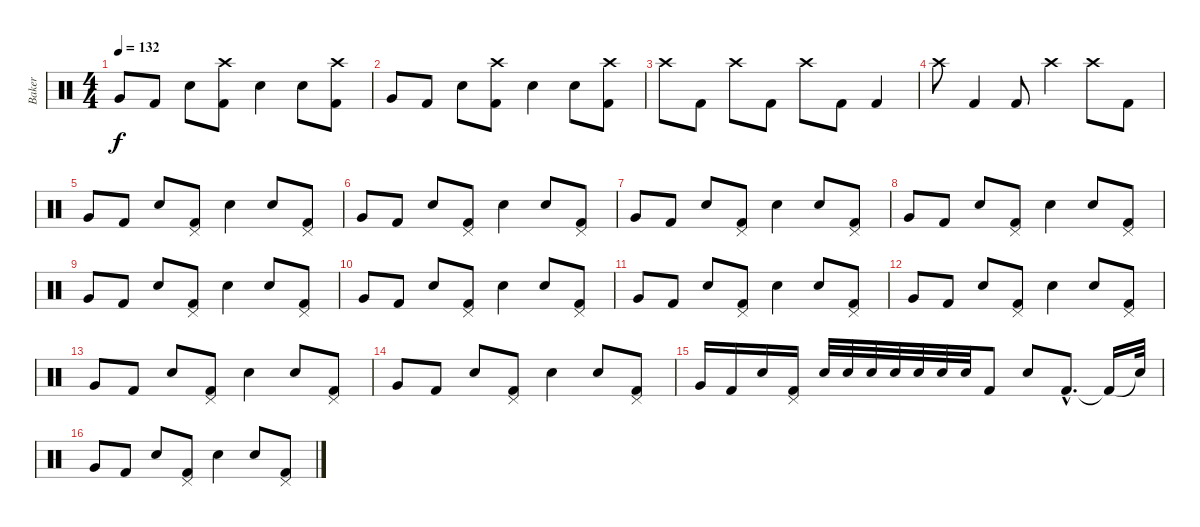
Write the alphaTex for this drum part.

\track ("Baker" "Baker") {instrument percussion}
\staff {score}
\articulation defaults
\ts (4 4)
\tempo 132
\clef neutral
\ks c "Very Low Tom (hit)".8{dy f} "Kick (hit) 2".8 "Snare (hit) 2".8
("Crash high (hit)" "Kick (hit) 2").8 "Snare (hit) 2".4 "Snare (hit) 2".8 ("Crash high (hit)" "Kick (hit) 2").8 |
"Very Low Tom (hit)".8 "Kick (hit) 2".8 "Snare (hit) 2".8 ("Crash high (hit)" "Kick (hit) 2").8 "Snare (hit) 2".4 "Snare (hit) 2".8 ("Crash high (hit)" "Kick (hit) 2").8 |
"Crash high (hit)".8 "Kick (hit) 2".8 "Crash high (hit)".8 "Kick (hit) 2".8 "Crash high (hit)".8 "Kick (hit) 2".8 "Kick (hit) 2".4 |
"Crash high (hit)".8 "Kick (hit) 2".4 "Kick (hit) 2".8 "Crash high (hit)".4 "Crash high (hit)".8 "Kick (hit) 2".8 |
"Very Low Tom (hit)".8 "Kick (hit) 2".8 "Snare (hit) 2".8 ("Pedal Hi-Hat (hit)" "Kick (hit) 2").8 "Snare (hit) 2".4 "Snare (hit) 2".8 ("Pedal Hi-Hat (hit)" "Kick (hit) 2").8 |
"Very Low Tom (hit)".8 "Kick (hit) 2".8 "Snare (hit) 2".8 ("Pedal Hi-Hat (hit)" "Kick (hit) 2").8 "Snare (hit) 2".4 "Snare (hit) 2".8 ("Pedal Hi-Hat (hit)" "Kick (hit) 2").8 |
"Very Low Tom (hit)".8 "Kick (hit) 2".8 "Snare (hit) 2".8 ("Pedal Hi-Hat (hit)" "Kick (hit) 2").8 "Snare (hit) 2".4 "Snare (hit) 2".8 ("Pedal Hi-Hat (hit)" "Kick (hit) 2").8 |
"Very Low Tom (hit)".8 "Kick (hit) 2".8 "Snare (hit) 2".8 ("Pedal Hi-Hat (hit)" "Kick (hit) 2").8 "Snare (hit) 2".4 "Snare (hit) 2".8 ("Pedal Hi-Hat (hit)" "Kick (hit) 2").8 |
"Very Low Tom (hit)".8 "Kick (hit) 2".8 "Snare (hit) 2".8 ("Pedal Hi-Hat (hit)" "Kick (hit) 2").8 "Snare (hit) 2".4 "Snare (hit) 2".8 ("Pedal Hi-Hat (hit)" "Kick (hit) 2").8 |
"Very Low Tom (hit)".8 "Kick (hit) 2".8 "Snare (hit) 2".8 ("Pedal Hi-Hat (hit)" "Kick (hit) 2").8 "Snare (hit) 2".4 "Snare (hit) 2".8 ("Pedal Hi-Hat (hit)" "Kick (hit) 2").8 |
"Very Low Tom (hit)".8 "Kick (hit) 2".8 "Snare (hit) 2".8 ("Pedal Hi-Hat (hit)" "Kick (hit) 2").8 "Snare (hit) 2".4 "Snare (hit) 2".8 ("Pedal Hi-Hat (hit)" "Kick (hit) 2").8 |
"Very Low Tom (hit)".8 "Kick (hit) 2".8 "Snare (hit) 2".8 ("Pedal Hi-Hat (hit)" "Kick (hit) 2").8 "Snare (hit) 2".4 "Snare (hit) 2".8 ("Pedal Hi-Hat (hit)" "Kick (hit) 2").8 |
"Very Low Tom (hit)".8 "Kick (hit) 2".8 "Snare (hit) 2".8 ("Pedal Hi-Hat (hit)" "Kick (hit) 2").8 "Snare (hit) 2".4 "Snare (hit) 2".8 ("Pedal Hi-Hat (hit)" "Kick (hit) 2").8 |
"Very Low Tom (hit)".8 "Kick (hit) 2".8 "Snare (hit) 2".8 ("Pedal Hi-Hat (hit)" "Kick (hit) 2").8 "Snare (hit) 2".4 "Snare (hit) 2".8 ("Pedal Hi-Hat (hit)" "Kick (hit) 2").8 |
"Very Low Tom (hit)".16 "Kick (hit) 2".16 "Snare (hit) 2".16 ("Pedal Hi-Hat (hit)" "Kick (hit) 2").16 "Snare (hit) 2".32 "Snare (hit) 2".32 "Snare (hit) 2".32 "Snare (hit) 2".32 "Snare (hit) 2".32 "Snare (hit) 2".32 "Snare (hit) 2".32 "Kick (hit) 2".8 "Snare (hit) 2".8 "Kick (hit) 2"{hac}.8{d} "Kick (hit) 2"{t}.16 "Snare (hit)"{t}.32 |
"Very Low Tom (hit)".8 "Kick (hit) 2".8 "Snare (hit) 2".8 ("Pedal Hi-Hat (hit)" "Kick (hit) 2").8 "Snare (hit) 2".4 "Snare (hit) 2".8 ("Pedal Hi-Hat (hit)" "Kick (hit) 2").8
